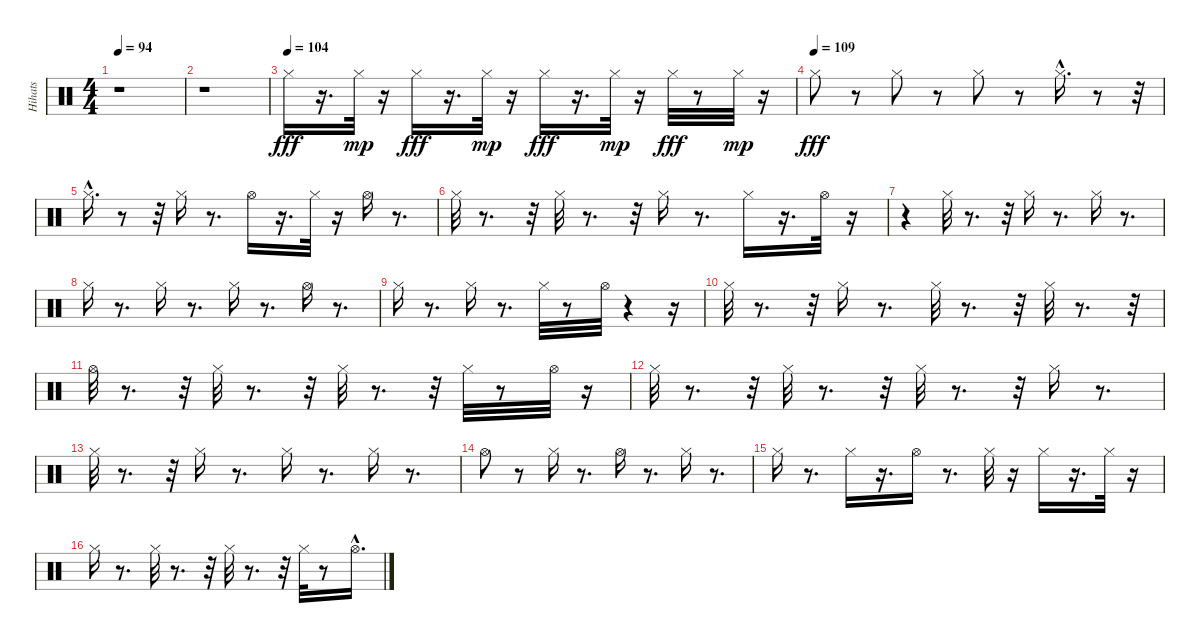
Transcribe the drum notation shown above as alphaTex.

\track ("Hihats          " "Hihats    ") {instrument percussion}
\staff {score}
\articulation defaults
\ts (4 4)
\tempo 94
\clef neutral
\ks c
r.1{dy fff} |
r.1 |
\tempo (104)
"Hi-Hat (closed)".16 r.16{d} "Hi-Hat (closed)".32{dy mp} r.16 "Hi-Hat (closed)".16{dy fff} r.16{d} "Hi-Hat (closed)".32{dy mp} r.16 "Hi-Hat (closed)".16{dy fff} r.16{d} "Hi-Hat (closed)".32{dy mp} r.16 "Hi-Hat (closed)".32{dy fff} r.8 "Hi-Hat (closed)".32{dy mp} r.16 |
\tempo (109)
"Hi-Hat (closed)".8{dy fff} r.8 "Hi-Hat (closed)".8 r.8 "Hi-Hat (closed)".8 r.8 "Hi-Hat (closed)"{hac}.16{d} r.8 r.32 |
"Hi-Hat (closed)"{hac}.16{d} r.8 r.32 "Hi-Hat (closed)".16 r.8{d} "Hi-Hat (open)".16 r.16{d} "Hi-Hat (closed)".32 r.16 "Hi-Hat (open)".16 r.8{d} |
"Hi-Hat (closed)".32 r.8{d} r.32 "Hi-Hat (closed)".32 r.8{d} r.32 "Hi-Hat (closed)".16 r.8{d} "Hi-Hat (closed)".16 r.16{d} "Hi-Hat (open)".32 r.16 |
r.4 "Hi-Hat (closed)".32 r.8{d} r.32 "Hi-Hat (closed)".16 r.8{d} "Hi-Hat (closed)".16 r.8{d} |
"Hi-Hat (closed)".16 r.8{d} "Hi-Hat (closed)".16 r.8{d} "Hi-Hat (closed)".16 r.8{d} "Hi-Hat (open)".16 r.8{d} |
"Hi-Hat (closed)".16 r.8{d} "Hi-Hat (closed)".16 r.8{d} "Hi-Hat (closed)".32 r.8 "Hi-Hat (open)".32 r.4 r.16 |
"Hi-Hat (closed)".32 r.8{d} r.32 "Hi-Hat (closed)".16 r.8{d} "Hi-Hat (closed)".32 r.8{d} r.32 "Hi-Hat (closed)".32 r.8{d} r.32 |
"Hi-Hat (open)".32 r.8{d} r.32 "Hi-Hat (closed)".32 r.8{d} r.32 "Hi-Hat (closed)".32 r.8{d} r.32 "Hi-Hat (closed)".32 r.8 "Hi-Hat (open)".32 r.16 |
"Hi-Hat (closed)".32 r.8{d} r.32 "Hi-Hat (closed)".32 r.8{d} r.32 "Hi-Hat (closed)".32 r.8{d} r.32 "Hi-Hat (closed)".16 r.8{d} |
"Hi-Hat (closed)".32 r.8{d} r.32 "Hi-Hat (closed)".16 r.8{d} "Hi-Hat (closed)".16 r.8{d} "Hi-Hat (closed)".16 r.8{d} |
"Hi-Hat (open)".8 r.8 "Hi-Hat (closed)".16 r.8{d} "Hi-Hat (open)".16 r.8{d} "Hi-Hat (closed)".16 r.8{d} |
"Hi-Hat (closed)".16 r.8{d} "Hi-Hat (closed)".16 r.16{d} "Hi-Hat (open)".16 r.8{d} "Hi-Hat (closed)".32 r.16 "Hi-Hat (closed)".16 r.16{d} "Hi-Hat (closed)".32 r.16 |
"Hi-Hat (closed)".16 r.8{d} "Hi-Hat (closed)".32 r.8{d} r.32 "Hi-Hat (closed)".32 r.8{d} r.32 "Hi-Hat (closed)".32 r.8 "Hi-Hat (open)"{hac}.16{d}
